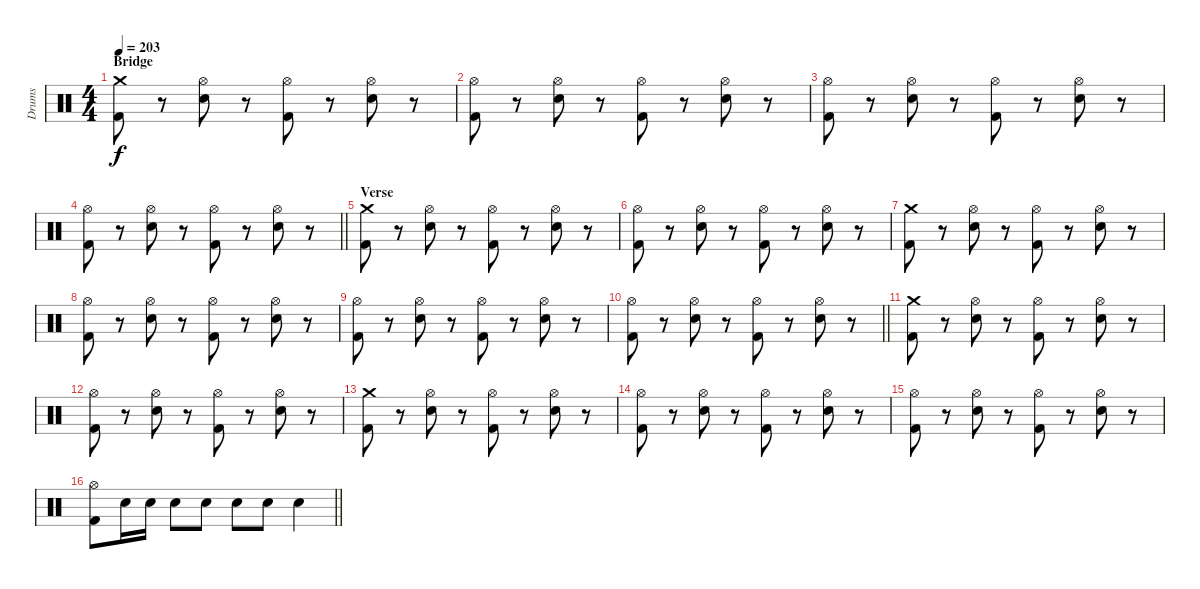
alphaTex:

\track ("Drums" "Drums") {instrument percussion}
\staff {score}
\articulation defaults
\ts (4 4)
\section ("" "Bridge")
\tempo 203
\clef neutral
\ks c
("Crash medium (hit)" "Kick (hit) 2").8{dy f} r.8 ("Hi-Hat (open)" "Electric Snare (hit)").8 r.8 ("Hi-Hat (open)" "Kick (hit) 2").8 r.8 ("Hi-Hat (open)" "Electric Snare (hit)").8 r.8 |
("Hi-Hat (open)" "Kick (hit) 2").8 r.8 ("Hi-Hat (open)" "Electric Snare (hit)").8 r.8 ("Hi-Hat (open)" "Kick (hit) 2").8 r.8 ("Hi-Hat (open)" "Electric Snare (hit)").8 r.8 |
("Hi-Hat (open)" "Kick (hit) 2").8 r.8 ("Hi-Hat (open)" "Electric Snare (hit)").8 r.8 ("Hi-Hat (open)" "Kick (hit) 2").8 r.8 ("Hi-Hat (open)" "Electric Snare (hit)").8 r.8 |
\barLineRight lightlight
("Hi-Hat (open)" "Kick (hit) 2").8 r.8 ("Hi-Hat (open)" "Electric Snare (hit)").8 r.8 ("Hi-Hat (open)" "Kick (hit) 2").8 r.8 ("Hi-Hat (open)" "Electric Snare (hit)").8 r.8 |
\section ("" "Verse")
("Crash medium (hit)" "Kick (hit) 2").8 r.8 ("Hi-Hat (open)" "Electric Snare (hit)").8 r.8 ("Hi-Hat (open)" "Kick (hit) 2").8 r.8 ("Hi-Hat (open)" "Electric Snare (hit)").8 r.8 |
("Hi-Hat (open)" "Kick (hit) 2").8 r.8 ("Hi-Hat (open)" "Electric Snare (hit)").8 r.8 ("Hi-Hat (open)" "Kick (hit) 2").8 r.8 ("Hi-Hat (open)" "Electric Snare (hit)").8 r.8 |
("Crash medium (hit)" "Kick (hit) 2").8 r.8 ("Hi-Hat (open)" "Electric Snare (hit)").8 r.8 ("Hi-Hat (open)" "Kick (hit) 2").8 r.8 ("Hi-Hat (open)" "Electric Snare (hit)").8 r.8 |
("Hi-Hat (open)" "Kick (hit) 2").8 r.8 ("Hi-Hat (open)" "Electric Snare (hit)").8 r.8 ("Hi-Hat (open)" "Kick (hit) 2").8 r.8 ("Hi-Hat (open)" "Electric Snare (hit)").8 r.8 |
("Hi-Hat (open)" "Kick (hit) 2").8 r.8 ("Hi-Hat (open)" "Electric Snare (hit)").8 r.8 ("Hi-Hat (open)" "Kick (hit) 2").8 r.8 ("Hi-Hat (open)" "Electric Snare (hit)").8 r.8 |
\barLineRight lightlight
("Hi-Hat (open)" "Kick (hit) 2").8 r.8 ("Hi-Hat (open)" "Electric Snare (hit)").8 r.8 ("Hi-Hat (open)" "Kick (hit) 2").8 r.8 ("Hi-Hat (open)" "Electric Snare (hit)").8 r.8 |
("Crash medium (hit)" "Kick (hit) 2").8 r.8 ("Hi-Hat (open)" "Electric Snare (hit)").8 r.8 ("Hi-Hat (open)" "Kick (hit) 2").8 r.8 ("Hi-Hat (open)" "Electric Snare (hit)").8 r.8 |
("Hi-Hat (open)" "Kick (hit) 2").8 r.8 ("Hi-Hat (open)" "Electric Snare (hit)").8 r.8 ("Hi-Hat (open)" "Kick (hit) 2").8 r.8 ("Hi-Hat (open)" "Electric Snare (hit)").8 r.8 |
("Crash medium (hit)" "Kick (hit) 2").8 r.8 ("Hi-Hat (open)" "Electric Snare (hit)").8 r.8 ("Hi-Hat (open)" "Kick (hit) 2").8 r.8 ("Hi-Hat (open)" "Electric Snare (hit)").8 r.8 |
("Hi-Hat (open)" "Kick (hit) 2").8 r.8 ("Hi-Hat (open)" "Electric Snare (hit)").8 r.8 ("Hi-Hat (open)" "Kick (hit) 2").8 r.8 ("Hi-Hat (open)" "Electric Snare (hit)").8 r.8 |
("Hi-Hat (open)" "Kick (hit) 2").8 r.8 ("Hi-Hat (open)" "Electric Snare (hit)").8 r.8 ("Hi-Hat (open)" "Kick (hit) 2").8 r.8 ("Hi-Hat (open)" "Electric Snare (hit)").8 r.8 |
\barLineRight lightlight
("Hi-Hat (open)" "Kick (hit) 2").8 "Electric Snare (hit)".16 "Electric Snare (hit)".16 "Electric Snare (hit)".8 "Electric Snare (hit)".8 "Electric Snare (hit)".8 "Electric Snare (hit)".8 "Electric Snare (hit)".4
